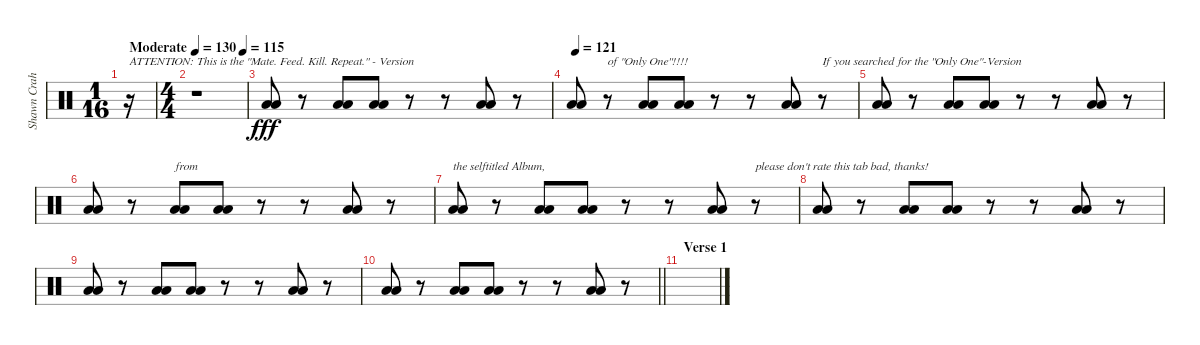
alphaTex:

\track ("Shawn Crahan" "Shawn Crah") {instrument percussion}
\staff {score}
\articulation defaults
\ts (1 16)
\tempo (130 "Moderate")
\tempo 140
\tempo (130 "Moderate")
\clef neutral
\ks c
r.16{txt "ATTENTION:" dy fff} |
\ts (4 4)
\tempo (115 0.9375)
r.1{txt "This is the \"Mate. Feed. Kill. Repeat.\" - Version"} |
("Low Floor Tom (hit)" "Low Floor Tom (hit)").8 r.8 ("Low Floor Tom (hit)" "Low Floor Tom (hit)").8 ("Low Floor Tom (hit)" "Low Floor Tom (hit)").8 r.8 r.8 ("Low Floor Tom (hit)" "Low Floor Tom (hit)").8 r.8 |
\tempo 121
("Low Floor Tom (hit)" "Low Floor Tom (hit)").8 r.8{txt "of \"Only One\"!!!!"} ("Low Floor Tom (hit)" "Low Floor Tom (hit)").8 ("Low Floor Tom (hit)" "Low Floor Tom (hit)").8 r.8 r.8 ("Low Floor Tom (hit)" "Low Floor Tom (hit)").8 r.8{txt "If you searched for the \"Only One\"-Version"} |
("Low Floor Tom (hit)" "Low Floor Tom (hit)").8 r.8 ("Low Floor Tom (hit)" "Low Floor Tom (hit)").8 ("Low Floor Tom (hit)" "Low Floor Tom (hit)").8 r.8 r.8 ("Low Floor Tom (hit)" "Low Floor Tom (hit)").8 r.8 |
("Low Floor Tom (hit)" "Low Floor Tom (hit)").8 r.8 ("Low Floor Tom (hit)" "Low Floor Tom (hit)").8{txt "from"} ("Low Floor Tom (hit)" "Low Floor Tom (hit)").8 r.8 r.8 ("Low Floor Tom (hit)" "Low Floor Tom (hit)").8 r.8 |
("Low Floor Tom (hit)" "Low Floor Tom (hit)").8{txt "the selftitled Album,"} r.8 ("Low Floor Tom (hit)" "Low Floor Tom (hit)").8 ("Low Floor Tom (hit)" "Low Floor Tom (hit)").8 r.8 r.8 ("Low Floor Tom (hit)" "Low Floor Tom (hit)").8 r.8{txt "please don't rate this tab bad, thanks!"} |
("Low Floor Tom (hit)" "Low Floor Tom (hit)").8 r.8 ("Low Floor Tom (hit)" "Low Floor Tom (hit)").8 ("Low Floor Tom (hit)" "Low Floor Tom (hit)").8 r.8 r.8 ("Low Floor Tom (hit)" "Low Floor Tom (hit)").8 r.8 |
("Low Floor Tom (hit)" "Low Floor Tom (hit)").8 r.8 ("Low Floor Tom (hit)" "Low Floor Tom (hit)").8 ("Low Floor Tom (hit)" "Low Floor Tom (hit)").8 r.8 r.8 ("Low Floor Tom (hit)" "Low Floor Tom (hit)").8 r.8 |
\barLineRight lightlight
("Low Floor Tom (hit)" "Low Floor Tom (hit)").8 r.8 ("Low Floor Tom (hit)" "Low Floor Tom (hit)").8 ("Low Floor Tom (hit)" "Low Floor Tom (hit)").8 r.8 r.8 ("Low Floor Tom (hit)" "Low Floor Tom (hit)").8 r.8 |
\section ("" "Verse 1")
